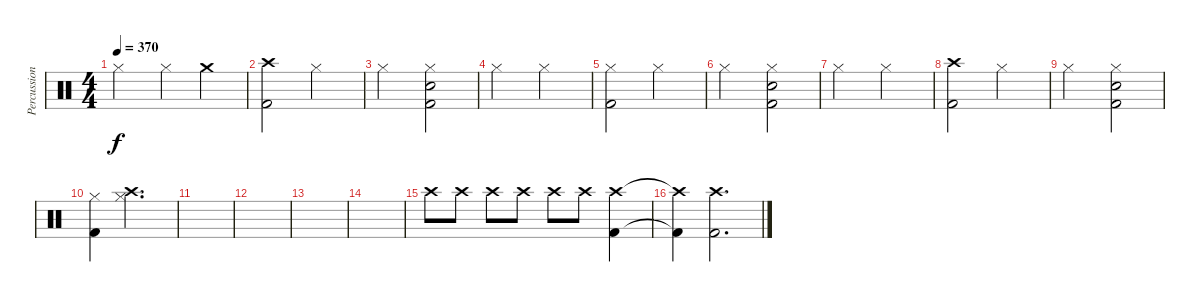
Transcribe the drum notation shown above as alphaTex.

\track ("Percussions" "Percussion") {instrument percussion}
\staff {score}
\articulation defaults
\ts (4 4)
\tempo 370
\clef neutral
\ks c "Hi-Hat (closed)".2{dy f} "Hi-Hat (closed)".4 "Crash medium (hit)".4
|
("Crash high (hit)" "Kick (hit) 2").2 "Hi-Hat (closed)".2 |
"Hi-Hat (closed)".2 ("Hi-Hat (closed)" "Kick (hit) 2" "Snare (hit) 2").2 |
"Hi-Hat (closed)".2 "Hi-Hat (closed)".2 |
("Hi-Hat (closed)" "Kick (hit) 2").2 "Hi-Hat (closed)".2 |
"Hi-Hat (closed)".2 ("Hi-Hat (closed)" "Kick (hit) 2" "Snare (hit) 2").2 |
"Hi-Hat (closed)".2 "Hi-Hat (closed)".2 |
("Crash high (hit)" "Kick (hit) 2").2 "Hi-Hat (closed)".2 |
"Hi-Hat (closed)".2 ("Hi-Hat (closed)" "Kick (hit) 2" "Snare (hit) 2").2 |
("Hi-Hat (closed)" "Kick (hit) 2").4 ("Hi-Hat (closed)" "Crash high (hit)").2{d} |
|
|
|
|
"Crash high (hit)".8 "Crash high (hit)".8 "Crash high (hit)".8 "Crash high (hit)".8 "Crash high (hit)".8 "Crash high (hit)".8 ("Crash high (hit)" "Kick (hit) 2").4 |
("Crash high (hit)"{t} "Kick (hit) 2"{t}).4 ("Crash high (hit)" "Kick (hit) 2").2{d}
